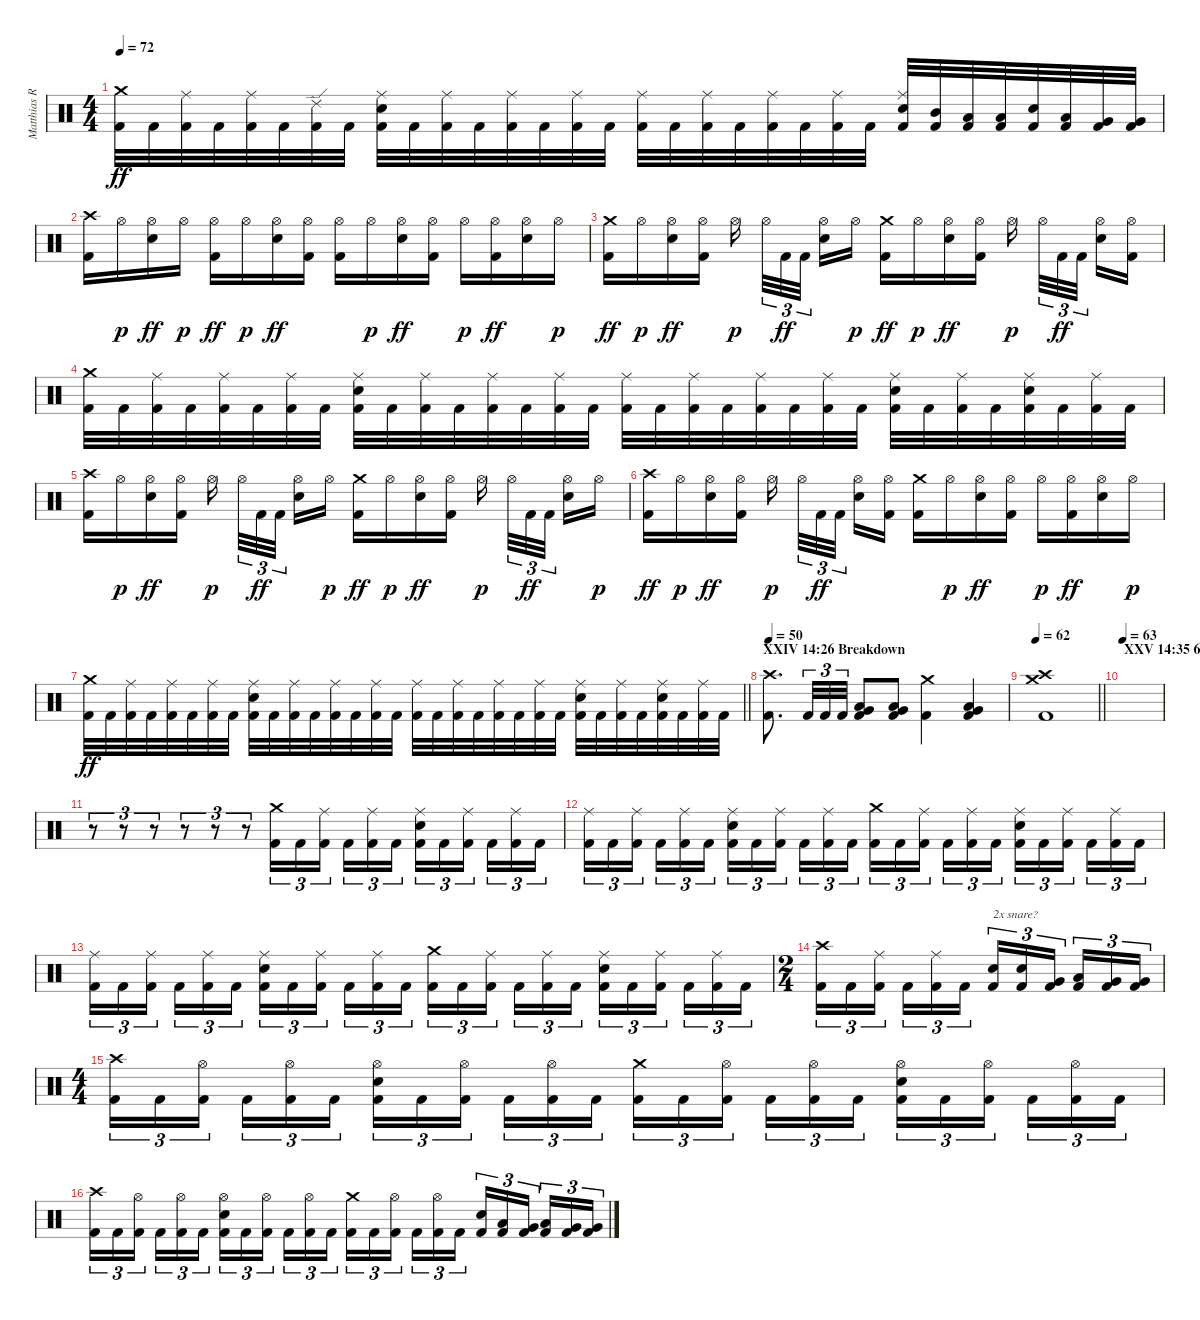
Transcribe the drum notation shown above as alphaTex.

\track ("Matthias R." "Matthias R") {instrument percussion}
\staff {score}
\articulation defaults
\ts (4 4)
\tempo 72
\clef neutral
\ks c
("Crash medium (hit)" "Kick (hit) 2").32{dy ff} "Kick (hit) 2".32 ("Ride (middle)" "Kick (hit) 2").32 "Kick (hit) 2".32 ("Ride (middle)" "Kick (hit) 2").32 "Kick (hit) 2".32 ("Ride (edge) 2" "Kick (hit) 2").32 "Kick (hit) 2".32 ("Ride (middle)" "Electric Snare (hit)" "Kick (hit) 2").32 "Kick (hit) 2".32 ("Ride (middle)" "Kick (hit) 2").32 "Kick (hit) 2".32 ("Ride (middle)" "Kick (hit) 2").32 "Kick (hit) 2".32 ("Ride (middle)" "Kick (hit) 2").32 "Kick (hit) 2".32 ("Ride (middle)" "Kick (hit) 2").32 "Kick (hit) 2".32 ("Ride (middle)" "Kick (hit) 2").32 "Kick (hit) 2".32 ("Ride (middle)" "Kick (hit) 2").32 "Kick (hit) 2".32 ("Ride (middle)" "Kick (hit) 2").32 "Kick (hit) 2".32 ("Ride (middle)" "Electric Snare (hit)" "Kick (hit) 2").32 ("Mid Tom (hit)" "Kick (hit) 2").32 ("Low Tom (hit)" "Kick (hit) 2").32 ("Low Tom (hit)" "Kick (hit) 2").32 ("Electric Snare (hit)" "Kick (hit) 2").32 ("Low Tom (hit)" "Kick (hit) 2").32 ("Very Low Tom (hit)" "Kick (hit) 2").32 ("Very Low Tom (hit)" "Kick (hit) 2").32 |
("Crash high (hit)" "Kick (hit) 2").16 "Hi-Hat (open)".16{dy p} ("Hi-Hat (open)" "Electric Snare (hit)").16{dy ff} "Hi-Hat (open)".16{dy p} ("Hi-Hat (open)" "Kick (hit) 2").16{dy ff} "Hi-Hat (open)".16{dy p} ("Hi-Hat (open)" "Electric Snare (hit)").16{dy ff} ("Hi-Hat (open)" "Kick (hit) 2").16 ("Hi-Hat (open)" "Kick (hit) 2").16 "Hi-Hat (open)".16{dy p} ("Hi-Hat (open)" "Electric Snare (hit)").16{dy ff} ("Hi-Hat (open)" "Kick (hit) 2").16 "Hi-Hat (open)".16{dy p} ("Hi-Hat (open)" "Kick (hit) 2").16{dy ff} ("Hi-Hat (open)" "Electric Snare (hit)").16 "Hi-Hat (open)".16{dy p} |
("Crash medium (hit)" "Kick (hit) 2").16{dy ff} "Hi-Hat (open)".16{dy p} ("Hi-Hat (open)" "Electric Snare (hit)").16{dy ff} ("Hi-Hat (open)" "Kick (hit) 2").16 "Hi-Hat (open)".16{dy p beam splitsecondary} "Hi-Hat (open)".32{tu (3 2)} "Kick (hit) 2".32{tu (3 2) dy ff} "Kick (hit) 2".32{tu (3 2) beam splitsecondary} ("Hi-Hat (open)" "Electric Snare (hit)").16 "Hi-Hat (open)".16{dy p} ("Crash medium (hit)" "Kick (hit) 2").16{dy ff} "Hi-Hat (open)".16{dy p} ("Hi-Hat (open)" "Electric Snare (hit)").16{dy ff} ("Hi-Hat (open)" "Kick (hit) 2").16 "Hi-Hat (open)".16{dy p beam splitsecondary} "Hi-Hat (open)".32{tu (3 2)} "Kick (hit) 2".32{tu (3 2) dy ff} "Kick (hit) 2".32{tu (3 2) beam splitsecondary} ("Hi-Hat (open)" "Electric Snare (hit)").16 ("Hi-Hat (open)" "Kick (hit) 2").16 |
("Crash medium (hit)" "Kick (hit) 2").32 "Kick (hit) 2".32 ("Ride (middle)" "Kick (hit) 2").32 "Kick (hit) 2".32 ("Ride (middle)" "Kick (hit) 2").32 "Kick (hit) 2".32 ("Ride (middle)" "Kick (hit) 2").32 "Kick (hit) 2".32 ("Ride (middle)" "Electric Snare (hit)" "Kick (hit) 2").32 "Kick (hit) 2".32 ("Ride (middle)" "Kick (hit) 2").32 "Kick (hit) 2".32 ("Ride (middle)" "Kick (hit) 2").32 "Kick (hit) 2".32 ("Ride (middle)" "Kick (hit) 2").32 "Kick (hit) 2".32 ("Ride (middle)" "Kick (hit) 2").32 "Kick (hit) 2".32 ("Ride (middle)" "Kick (hit) 2").32 "Kick (hit) 2".32 ("Ride (middle)" "Kick (hit) 2").32 "Kick (hit) 2".32 ("Ride (middle)" "Kick (hit) 2").32 "Kick (hit) 2".32 ("Ride (middle)" "Electric Snare (hit)" "Kick (hit) 2").32 "Kick (hit) 2".32 ("Ride (middle)" "Kick (hit) 2").32 "Kick (hit) 2".32 ("Ride (middle)" "Electric Snare (hit)" "Kick (hit) 2").32 "Kick (hit) 2".32 ("Ride (middle)" "Kick (hit) 2").32 "Kick (hit) 2".32 |
("Crash high (hit)" "Kick (hit) 2").16 "Hi-Hat (open)".16{dy p} ("Hi-Hat (open)" "Electric Snare (hit)").16{dy ff} ("Hi-Hat (open)" "Kick (hit) 2").16 "Hi-Hat (open)".16{dy p beam splitsecondary} "Hi-Hat (open)".32{tu (3 2)} "Kick (hit) 2".32{tu (3 2) dy ff} "Kick (hit) 2".32{tu (3 2) beam splitsecondary} ("Hi-Hat (open)" "Electric Snare (hit)").16 "Hi-Hat (open)".16{dy p} ("Crash medium (hit)" "Kick (hit) 2").16{dy ff} "Hi-Hat (open)".16{dy p} ("Hi-Hat (open)" "Electric Snare (hit)").16{dy ff} ("Hi-Hat (open)" "Kick (hit) 2").16 "Hi-Hat (open)".16{dy p beam splitsecondary} "Hi-Hat (open)".32{tu (3 2)} "Kick (hit) 2".32{tu (3 2) dy ff} "Kick (hit) 2".32{tu (3 2) beam splitsecondary} ("Hi-Hat (open)" "Electric Snare (hit)").16 "Hi-Hat (open)".16{dy p} |
("Crash high (hit)" "Kick (hit) 2").16{dy ff} "Hi-Hat (open)".16{dy p} ("Hi-Hat (open)" "Electric Snare (hit)").16{dy ff} ("Hi-Hat (open)" "Kick (hit) 2").16 "Hi-Hat (open)".16{dy p beam splitsecondary} "Hi-Hat (open)".32{tu (3 2)} "Kick (hit) 2".32{tu (3 2) dy ff} "Kick (hit) 2".32{tu (3 2) beam splitsecondary} ("Hi-Hat (open)" "Electric Snare (hit)").16 ("Hi-Hat (open)" "Kick (hit) 2").16 ("Crash medium (hit)" "Kick (hit) 2").16 "Hi-Hat (open)".16{dy p} ("Hi-Hat (open)" "Electric Snare (hit)").16{dy ff} ("Hi-Hat (open)" "Kick (hit) 2").16 "Hi-Hat (open)".16{dy p} ("Hi-Hat (open)" "Kick (hit) 2").16{dy ff} ("Hi-Hat (open)" "Electric Snare (hit)").16 "Hi-Hat (open)".16{dy p} |
\barLineRight lightlight
("Crash medium (hit)" "Kick (hit) 2").32{dy ff} "Kick (hit) 2".32 ("Ride (middle)" "Kick (hit) 2").32 "Kick (hit) 2".32 ("Ride (middle)" "Kick (hit) 2").32 "Kick (hit) 2".32 ("Ride (middle)" "Kick (hit) 2").32 "Kick (hit) 2".32 ("Ride (middle)" "Electric Snare (hit)" "Kick (hit) 2").32 "Kick (hit) 2".32 ("Ride (middle)" "Kick (hit) 2").32 "Kick (hit) 2".32 ("Ride (middle)" "Kick (hit) 2").32 "Kick (hit) 2".32 ("Ride (middle)" "Kick (hit) 2").32 "Kick (hit) 2".32 ("Ride (middle)" "Kick (hit) 2").32 "Kick (hit) 2".32 ("Ride (middle)" "Kick (hit) 2").32 "Kick (hit) 2".32 ("Ride (middle)" "Kick (hit) 2").32 "Kick (hit) 2".32 ("Ride (middle)" "Kick (hit) 2").32 "Kick (hit) 2".32 ("Ride (middle)" "Electric Snare (hit)" "Kick (hit) 2").32 "Kick (hit) 2".32 ("Ride (middle)" "Kick (hit) 2").32 "Kick (hit) 2".32 ("Ride (middle)" "Electric Snare (hit)" "Kick (hit) 2").32 "Kick (hit) 2".32 ("Ride (middle)" "Kick (hit) 2").32 "Kick (hit) 2".32 |
\section ("" "XXIV 14:26 Breakdown")
\tempo 50
("Crash high (hit)" "Kick (hit) 2").8{d} "Kick (hit) 2".32{tu (3 2)} "Kick (hit) 2".32{tu (3 2)} "Kick (hit) 2".32{tu (3 2)} ("Low Tom (hit)" "Very Low Tom (hit)" "Kick (hit) 2").8 ("Low Floor Tom (hit)" "Very Low Tom (hit)" "Kick (hit) 2").8 ("Crash medium (hit)" "Kick (hit) 2").4 ("Low Floor Tom (hit)" "Very Low Tom (hit)" "Kick (hit) 2").4 |
\tempo 62
\barLineRight lightlight
("Crash high (hit)" "Crash medium (hit)" "Kick (hit) 2").1 |
\section ("" "XXV 14:35 63 bpm")
\tempo 63
|
r.8{tu (3 2)} r.8{tu (3 2)} r.8{tu (3 2)} r.8{tu (3 2)} r.8{tu (3 2)} r.8{tu (3 2)} ("Crash medium (hit)" "Kick (hit) 2").16{tu (3 2)} "Kick (hit) 2".16{tu (3 2)} ("Ride (middle)" "Kick (hit) 2").16{tu (3 2) beam splitsecondary} "Kick (hit) 2".16{tu (3 2)} ("Ride (middle)" "Kick (hit) 2").16{tu (3 2)} "Kick (hit) 2".16{tu (3 2)} ("Ride (middle)" "Electric Snare (hit)" "Kick (hit) 2").16{tu (3 2)} "Kick (hit) 2".16{tu (3 2)} ("Ride (middle)" "Kick (hit) 2").16{tu (3 2) beam splitsecondary} "Kick (hit) 2".16{tu (3 2)} ("Ride (middle)" "Kick (hit) 2").16{tu (3 2)} "Kick (hit) 2".16{tu (3 2)} |
("Ride (middle)" "Kick (hit) 2").16{tu (3 2)} "Kick (hit) 2".16{tu (3 2)} ("Ride (middle)" "Kick (hit) 2").16{tu (3 2) beam splitsecondary} "Kick (hit) 2".16{tu (3 2)} ("Ride (middle)" "Kick (hit) 2").16{tu (3 2)} "Kick (hit) 2".16{tu (3 2)} ("Ride (middle)" "Electric Snare (hit)" "Kick (hit) 2").16{tu (3 2)} "Kick (hit) 2".16{tu (3 2)} ("Ride (middle)" "Kick (hit) 2").16{tu (3 2) beam splitsecondary} "Kick (hit) 2".16{tu (3 2)} ("Ride (middle)" "Kick (hit) 2").16{tu (3 2)} "Kick (hit) 2".16{tu (3 2)} ("Crash medium (hit)" "Kick (hit) 2").16{tu (3 2)} "Kick (hit) 2".16{tu (3 2)} ("Ride (middle)" "Kick (hit) 2").16{tu (3 2) beam splitsecondary} "Kick (hit) 2".16{tu (3 2)} ("Ride (middle)" "Kick (hit) 2").16{tu (3 2)} "Kick (hit) 2".16{tu (3 2)} ("Ride (middle)" "Electric Snare (hit)" "Kick (hit) 2").16{tu (3 2)} "Kick (hit) 2".16{tu (3 2)} ("Ride (middle)" "Kick (hit) 2").16{tu (3 2) beam splitsecondary} "Kick (hit) 2".16{tu (3 2)} ("Ride (middle)" "Kick (hit) 2").16{tu (3 2)} "Kick (hit) 2".16{tu (3 2)} |
("Ride (middle)" "Kick (hit) 2").16{tu (3 2)} "Kick (hit) 2".16{tu (3 2)} ("Ride (middle)" "Kick (hit) 2").16{tu (3 2) beam splitsecondary} "Kick (hit) 2".16{tu (3 2)} ("Ride (middle)" "Kick (hit) 2").16{tu (3 2)} "Kick (hit) 2".16{tu (3 2)} ("Ride (middle)" "Electric Snare (hit)" "Kick (hit) 2").16{tu (3 2)} "Kick (hit) 2".16{tu (3 2)} ("Ride (middle)" "Kick (hit) 2").16{tu (3 2) beam splitsecondary} "Kick (hit) 2".16{tu (3 2)} ("Ride (middle)" "Kick (hit) 2").16{tu (3 2)} "Kick (hit) 2".16{tu (3 2)} ("Crash medium (hit)" "Kick (hit) 2").16{tu (3 2)} "Kick (hit) 2".16{tu (3 2)} ("Ride (middle)" "Kick (hit) 2").16{tu (3 2) beam splitsecondary} "Kick (hit) 2".16{tu (3 2)} ("Ride (middle)" "Kick (hit) 2").16{tu (3 2)} "Kick (hit) 2".16{tu (3 2)} ("Ride (middle)" "Electric Snare (hit)" "Kick (hit) 2").16{tu (3 2)} "Kick (hit) 2".16{tu (3 2)} ("Ride (middle)" "Kick (hit) 2").16{tu (3 2) beam splitsecondary} "Kick (hit) 2".16{tu (3 2)} ("Ride (middle)" "Kick (hit) 2").16{tu (3 2)} "Kick (hit) 2".16{tu (3 2)} |
\ts (2 4)
("Crash high (hit)" "Kick (hit) 2").16{tu (3 2)} "Kick (hit) 2".16{tu (3 2)} ("Ride (middle)" "Kick (hit) 2").16{tu (3 2) beam splitsecondary} "Kick (hit) 2".16{tu (3 2)} ("Ride (middle)" "Kick (hit) 2").16{tu (3 2)} "Kick (hit) 2".16{tu (3 2)} ("Electric Snare (hit)" "Kick (hit) 2").16{tu (3 2) txt "2x snare?"} ("Electric Snare (hit)" "Kick (hit) 2").16{tu (3 2)} ("Very Low Tom (hit)" "Kick (hit) 2").16{tu (3 2) beam splitsecondary} ("Low Tom (hit)" "Kick (hit) 2").16{tu (3 2)} ("Very Low Tom (hit)" "Kick (hit) 2").16{tu (3 2)} ("Very Low Tom (hit)" "Kick (hit) 2").16{tu (3 2)} |
\ts (4 4)
("Crash high (hit)" "Kick (hit) 2").16{tu (3 2)} "Kick (hit) 2".16{tu (3 2)} ("Hi-Hat (open)" "Kick (hit) 2").16{tu (3 2) beam splitsecondary} "Kick (hit) 2".16{tu (3 2)} ("Hi-Hat (open)" "Kick (hit) 2").16{tu (3 2)} "Kick (hit) 2".16{tu (3 2)} ("Hi-Hat (open)" "Electric Snare (hit)" "Kick (hit) 2").16{tu (3 2)} "Kick (hit) 2".16{tu (3 2)} ("Hi-Hat (open)" "Kick (hit) 2").16{tu (3 2) beam splitsecondary} "Kick (hit) 2".16{tu (3 2)} ("Hi-Hat (open)" "Kick (hit) 2").16{tu (3 2)} "Kick (hit) 2".16{tu (3 2)} ("Crash medium (hit)" "Kick (hit) 2").16{tu (3 2)} "Kick (hit) 2".16{tu (3 2)} ("Hi-Hat (open)" "Kick (hit) 2").16{tu (3 2) beam splitsecondary} "Kick (hit) 2".16{tu (3 2)} ("Hi-Hat (open)" "Kick (hit) 2").16{tu (3 2)} "Kick (hit) 2".16{tu (3 2)} ("Hi-Hat (open)" "Electric Snare (hit)" "Kick (hit) 2").16{tu (3 2)} "Kick (hit) 2".16{tu (3 2)} ("Hi-Hat (open)" "Kick (hit) 2").16{tu (3 2) beam splitsecondary} "Kick (hit) 2".16{tu (3 2)} ("Hi-Hat (open)" "Kick (hit) 2").16{tu (3 2)} "Kick (hit) 2".16{tu (3 2)} |
("Crash high (hit)" "Kick (hit) 2").16{tu (3 2)} "Kick (hit) 2".16{tu (3 2)} ("Hi-Hat (open)" "Kick (hit) 2").16{tu (3 2) beam splitsecondary} "Kick (hit) 2".16{tu (3 2)} ("Hi-Hat (open)" "Kick (hit) 2").16{tu (3 2)} "Kick (hit) 2".16{tu (3 2)} ("Hi-Hat (open)" "Electric Snare (hit)" "Kick (hit) 2").16{tu (3 2)} "Kick (hit) 2".16{tu (3 2)} ("Hi-Hat (open)" "Kick (hit) 2").16{tu (3 2) beam splitsecondary} "Kick (hit) 2".16{tu (3 2)} ("Hi-Hat (open)" "Kick (hit) 2").16{tu (3 2)} "Kick (hit) 2".16{tu (3 2)} ("Crash medium (hit)" "Kick (hit) 2").16{tu (3 2)} "Kick (hit) 2".16{tu (3 2)} ("Hi-Hat (open)" "Kick (hit) 2").16{tu (3 2) beam splitsecondary} "Kick (hit) 2".16{tu (3 2)} ("Hi-Hat (open)" "Kick (hit) 2").16{tu (3 2)} "Kick (hit) 2".16{tu (3 2)} ("Electric Snare (hit)" "Kick (hit) 2").16{tu (3 2)} ("Low Tom (hit)" "Kick (hit) 2").16{tu (3 2)} ("Very Low Tom (hit)" "Kick (hit) 2").16{tu (3 2) beam splitsecondary} ("Low Tom (hit)" "Kick (hit) 2").16{tu (3 2)} ("Very Low Tom (hit)" "Kick (hit) 2").16{tu (3 2)} ("Very Low Tom (hit)" "Kick (hit) 2").16{tu (3 2)}
